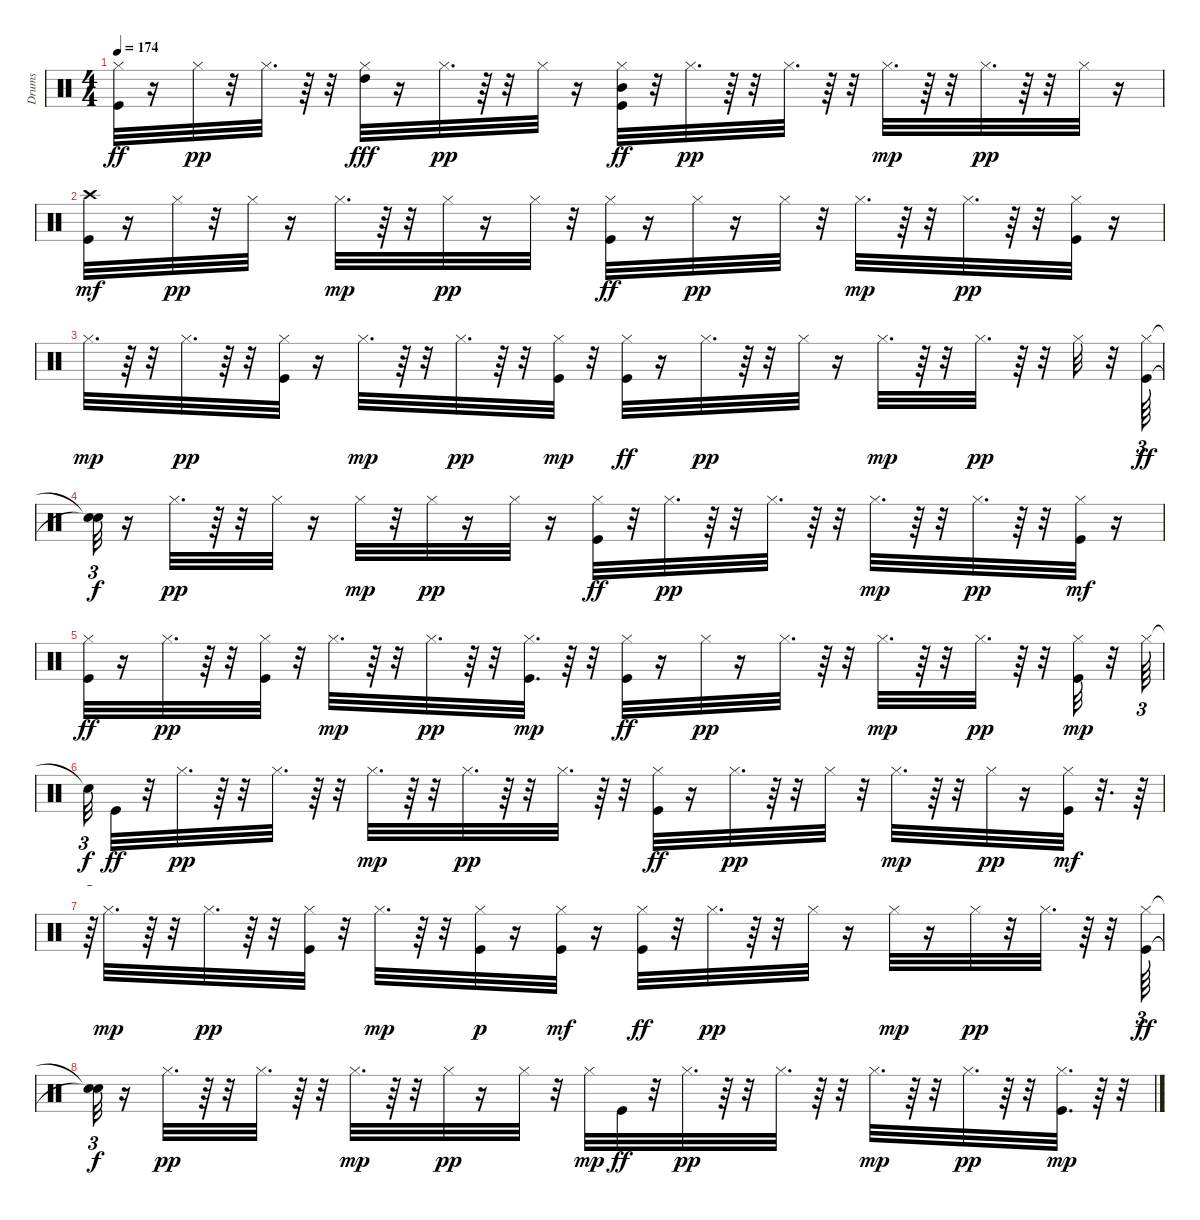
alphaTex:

\track ("Drums" "Drums") {instrument percussion}
\staff {score}
\articulation defaults
\ts (4 4)
\tempo 174
\clef neutral
\ks c
("Hi-Hat (closed)" "Kick (hit)").32{dy ff} r.16 "Hi-Hat (closed)".32{dy pp} r.32 "Hi-Hat (closed)".32{d} r.64 r.32 ("Hi-Hat (closed)" "High Tom (hit)").32{dy fff} r.16 "Hi-Hat (closed)".32{d dy pp} r.64 r.32 "Hi-Hat (closed)".32 r.16 ("Hi-Hat (closed)" "Kick (hit)" "Mid Tom (hit)").32{dy ff} r.32 "Hi-Hat (closed)".32{d dy pp} r.64 r.32 "Hi-Hat (closed)".32{d} r.64 r.32 "Hi-Hat (closed)".32{d dy mp} r.64 r.32 "Hi-Hat (closed)".32{d dy pp} r.64 r.32 "Hi-Hat (closed)".32 r.16 |
("Kick (hit)" "Crash high (hit)").32{dy mf} r.16 "Hi-Hat (closed)".32{dy pp} r.32 "Hi-Hat (closed)".32 r.16 "Hi-Hat (closed)".32{d dy mp} r.64 r.32 "Hi-Hat (closed)".32{dy pp} r.16 "Hi-Hat (closed)".32 r.32 ("Hi-Hat (closed)" "Kick (hit)").32{dy ff} r.16 "Hi-Hat (closed)".32{dy pp} r.16 "Hi-Hat (closed)".32 r.32 "Hi-Hat (closed)".32{d dy mp} r.64 r.32 "Hi-Hat (closed)".32{d dy pp} r.64 r.32 ("Hi-Hat (closed)" "Kick (hit)").32 r.16 |
"Hi-Hat (closed)".32{d dy mp} r.64 r.32 "Hi-Hat (closed)".32{d dy pp} r.64 r.32 ("Hi-Hat (closed)" "Kick (hit)").32 r.16 "Hi-Hat (closed)".32{d dy mp} r.64 r.32 "Hi-Hat (closed)".32{d dy pp} r.64 r.32 ("Hi-Hat (closed)" "Kick (hit)").32{dy mp} r.32 ("Hi-Hat (closed)" "Kick (hit)").32{dy ff} r.16 "Hi-Hat (closed)".32{d dy pp} r.64 r.32 "Hi-Hat (closed)".32 r.16 "Hi-Hat (closed)".32{d dy mp} r.64 r.32 "Hi-Hat (closed)".32{d dy pp} r.64 r.32 "Hi-Hat (closed)".32 r.32 ("Hi-Hat (closed)" "Kick (hit)").64{tu (3 2) dy ff} |
("Snare (hit)"{t} "Snare (hit)"{t}).32{tu (3 2) dy f} r.16 "Hi-Hat (closed)".32{d dy pp} r.64 r.32 "Hi-Hat (closed)".32 r.16 "Hi-Hat (closed)".32{dy mp} r.32 "Hi-Hat (closed)".32{dy pp} r.16 "Hi-Hat (closed)".32 r.16 ("Hi-Hat (closed)" "Kick (hit)").32{dy ff} r.32 "Hi-Hat (closed)".32{d dy pp} r.64 r.32 "Hi-Hat (closed)".32{d} r.64 r.32 "Hi-Hat (closed)".32{d dy mp} r.64 r.32 "Hi-Hat (closed)".32{d dy pp} r.64 r.32 ("Hi-Hat (closed)" "Kick (hit)").32{dy mf} r.16 |
("Hi-Hat (closed)" "Kick (hit)").32{dy ff} r.16 "Hi-Hat (closed)".32{d dy pp} r.64 r.32 ("Hi-Hat (closed)" "Kick (hit)").32 r.32 "Hi-Hat (closed)".32{d dy mp} r.64 r.32 "Hi-Hat (closed)".32{d dy pp} r.64 r.32 ("Hi-Hat (closed)" "Kick (hit)").32{d dy mp} r.64 r.32 ("Hi-Hat (closed)" "Kick (hit)").32{dy ff} r.16 "Hi-Hat (closed)".32{dy pp} r.16 "Hi-Hat (closed)".32{d} r.64 r.32 "Hi-Hat (closed)".32{d dy mp} r.64 r.32 "Hi-Hat (closed)".32{d dy pp} r.64 r.32 ("Hi-Hat (closed)" "Kick (hit)").32{dy mp} r.32 "Hi-Hat (closed)".64{tu (3 2)} |
"Snare (hit)"{t}.32{tu (3 2) dy f} "Kick (hit)".32{dy ff} r.32 "Hi-Hat (closed)".32{d dy pp} r.64 r.32 "Hi-Hat (closed)".32{d} r.64 r.32 "Hi-Hat (closed)".32{d dy mp} r.64 r.32 "Hi-Hat (closed)".32{d dy pp} r.64 r.32 "Hi-Hat (closed)".32{d} r.64 r.32 ("Hi-Hat (closed)" "Kick (hit)").32{dy ff} r.16 "Hi-Hat (closed)".32{d dy pp} r.64 r.32 "Hi-Hat (closed)".32 r.32 "Hi-Hat (closed)".32{d dy mp} r.64 r.32 "Hi-Hat (closed)".32{dy pp} r.16 ("Hi-Hat (closed)" "Kick (hit)").32{dy mf} r.32{d} r.64 |
r.64{tu (3 2)} "Hi-Hat (closed)".32{d dy mp} r.64 r.32 "Hi-Hat (closed)".32{d dy pp} r.64 r.32 ("Hi-Hat (closed)" "Kick (hit)").32 r.32 "Hi-Hat (closed)".32{d dy mp} r.64 r.32 ("Hi-Hat (closed)" "Kick (hit)").32{dy p} r.16 ("Hi-Hat (closed)" "Kick (hit)").32{dy mf} r.16 ("Hi-Hat (closed)" "Kick (hit)").32{dy ff} r.32 "Hi-Hat (closed)".32{d dy pp} r.64 r.32 "Hi-Hat (closed)".32 r.16 "Hi-Hat (closed)".32{dy mp} r.16 "Hi-Hat (closed)".32{dy pp} r.32 "Hi-Hat (closed)".32{d} r.64 r.32 ("Hi-Hat (closed)" "Kick (hit)").64{tu (3 2) dy ff} |
("Snare (hit)"{t} "Snare (hit)"{t}).32{tu (3 2) dy f} r.16 "Hi-Hat (closed)".32{d dy pp} r.64 r.32 "Hi-Hat (closed)".32{d} r.64 r.32 "Hi-Hat (closed)".32{d dy mp} r.64 r.32 "Hi-Hat (closed)".32{dy pp} r.16 "Hi-Hat (closed)".32 r.32 "Hi-Hat (closed)".32{dy mp} "Kick (hit)".32{dy ff} r.32 "Hi-Hat (closed)".32{d dy pp} r.64 r.32 "Hi-Hat (closed)".32{d} r.64 r.32 "Hi-Hat (closed)".32{d dy mp} r.64 r.32 "Hi-Hat (closed)".32{d dy pp} r.64 r.32 ("Hi-Hat (closed)" "Kick (hit)").32{d dy mp} r.64 r.32
